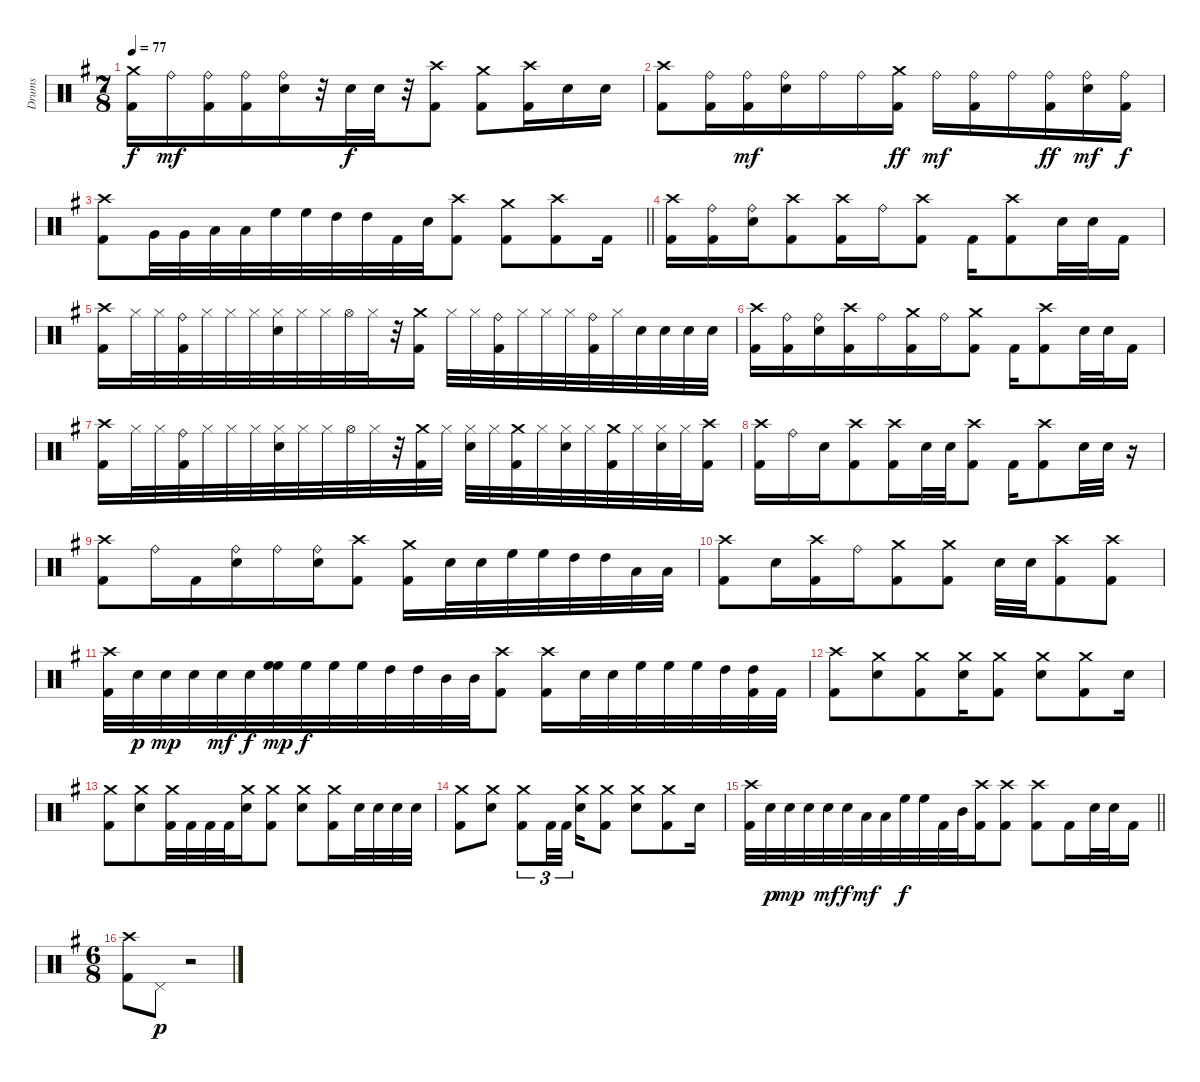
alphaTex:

\track ("Drums" "Drums") {instrument percussion}
\staff {score}
\articulation defaults
\ts (7 8)
\tempo 77
\clef neutral
\ks g
("Crash medium (hit)" "Kick (hit) 2").16{dy f} "Ride (bell)".16{dy mf} ("Kick (hit) 2" "Ride (bell)").16 ("Kick (hit) 2" "Ride (bell)").16 ("Ride (bell)" "Electric Snare (hit)").16 r.32 "Electric Snare (hit)".32{dy f} "Electric Snare (hit)".32 r.32 ("Kick (hit) 2" "Crash high (hit)").8 ("Kick (hit) 2" "Crash medium (hit)").8 ("Kick (hit) 2" "Crash high (hit)").16 "Electric Snare (hit)".16 "Electric Snare (hit)".16 |
("Kick (hit) 2" "Crash high (hit)").8 ("Kick (hit) 2" "Ride (bell)").16 ("Kick (hit) 2" "Ride (bell)").16{dy mf} ("Electric Snare (hit)" "Ride (bell)").16 "Ride (bell)".16 "Ride (bell)".16 ("Kick (hit) 2" "Crash medium (hit)").16{dy ff} "Ride (bell)".16{dy mf} ("Kick (hit) 2" "Ride (bell)").16 "Ride (bell)".16 ("Kick (hit) 2" "Ride (bell)").16{dy ff} ("Electric Snare (hit)" "Ride (bell)").16{dy mf} ("Kick (hit) 2" "Ride (bell)").16{dy f} |
\barLineRight lightlight
("Kick (hit) 2" "Crash high (hit)").8 "Very Low Tom (hit)".32 "Very Low Tom (hit)".32 "Low Floor Tom (hit)".32 "Low Floor Tom (hit)".32 "High Floor Tom (hit)".32 "High Floor Tom (hit)".32 "High Tom (hit)".32 "High Tom (hit)".32 "Kick (hit) 2".32 "Electric Snare (hit)".32 ("Kick (hit) 2" "Crash high (hit)").8 ("Kick (hit) 2" "Crash medium (hit)").8 ("Kick (hit) 2" "Crash high (hit)").8 "Kick (hit) 2".16 |
("Crash high (hit)" "Kick (hit) 2").16 ("Kick (hit) 2" "Ride (bell)").16 ("Electric Snare (hit)" "Ride (bell)").16 ("Kick (hit) 2" "Crash high (hit)").8 ("Crash high (hit)" "Kick (hit) 2").16 "Ride (bell)".16 ("Crash high (hit)" "Kick (hit) 2").8 "Kick (hit) 2".16 ("Kick (hit) 2" "Crash high (hit)").8 "Electric Snare (hit)".32 "Electric Snare (hit)".32 "Kick (hit) 2".16 |
("Kick (hit) 2" "Crash high (hit)").16 "Hi-Hat (closed)".32 "Hi-Hat (closed)".32 ("Kick (hit) 2" "Ride (bell)").32 "Hi-Hat (closed)".32 "Hi-Hat (closed)".32 "Hi-Hat (closed)".32 ("Hi-Hat (closed)" "Electric Snare (hit)").32 "Hi-Hat (closed)".32 "Hi-Hat (closed)".32 "Hi-Hat (open)".32 "Hi-Hat (closed)".32 r.32 ("Kick (hit) 2" "Crash medium (hit)").16 "Hi-Hat (closed)".32 "Hi-Hat (closed)".32 ("Kick (hit) 2" "Ride (bell)").32 "Hi-Hat (closed)".32 "Hi-Hat (closed)".32 "Hi-Hat (closed)".32 ("Ride (bell)" "Kick (hit) 2").32 "Hi-Hat (closed)".32 "Electric Snare (hit)".32 "Electric Snare (hit)".32 "Electric Snare (hit)".32 "Electric Snare (hit)".32 |
("Kick (hit) 2" "Crash high (hit)").16 ("Kick (hit) 2" "Ride (bell)").16 ("Electric Snare (hit)" "Ride (bell)").16 ("Kick (hit) 2" "Crash high (hit)").16 "Ride (bell)".16 ("Kick (hit) 2" "Crash medium (hit)").16 "Ride (bell)".16 ("Kick (hit) 2" "Crash medium (hit)").8 "Kick (hit) 2".16 ("Kick (hit) 2" "Crash high (hit)").8 "Electric Snare (hit)".32 "Electric Snare (hit)".32 "Kick (hit) 2".16 |
("Crash high (hit)" "Kick (hit) 2").16 "Hi-Hat (closed)".32 "Hi-Hat (closed)".32 ("Kick (hit) 2" "Ride (bell)").32 "Hi-Hat (closed)".32 "Hi-Hat (closed)".32 "Hi-Hat (closed)".32 ("Hi-Hat (closed)" "Electric Snare (hit)").32 "Hi-Hat (closed)".32 "Hi-Hat (closed)".32 "Hi-Hat (open)".32 "Hi-Hat (closed)".32 r.32 ("Kick (hit) 2" "Crash medium (hit)").32 "Hi-Hat (closed)".32 ("Hi-Hat (closed)" "Electric Snare (hit)").32 "Hi-Hat (closed)".32 ("Kick (hit) 2" "Crash medium (hit)").32 "Hi-Hat (closed)".32 ("Hi-Hat (closed)" "Electric Snare (hit)").32 "Hi-Hat (closed)".32 ("Kick (hit) 2" "Crash medium (hit)").32 "Hi-Hat (closed)".32 ("Electric Snare (hit)" "Hi-Hat (closed)").32 "Hi-Hat (closed)".32 ("Kick (hit) 2" "Crash high (hit)").16 |
("Kick (hit) 2" "Crash high (hit)").16 "Ride (bell)".16 "Electric Snare (hit)".16 ("Kick (hit) 2" "Crash high (hit)").8 ("Crash high (hit)" "Kick (hit) 2").16 "Electric Snare (hit)".32 "Electric Snare (hit)".32 ("Crash high (hit)" "Kick (hit) 2").8 "Kick (hit) 2".16 ("Kick (hit) 2" "Crash high (hit)").8 "Electric Snare (hit)".32 "Electric Snare (hit)".32 r.16 |
("Kick (hit) 2" "Crash high (hit)").8 "Ride (bell)".16 "Kick (hit) 2".16 ("Electric Snare (hit)" "Ride (bell)").16 "Ride (bell)".16 ("Electric Snare (hit)" "Ride (bell)").16 ("Kick (hit) 2" "Crash high (hit)").8 ("Kick (hit) 2" "Crash medium (hit)").16 "Electric Snare (hit)".32 "Electric Snare (hit)".32 "High Floor Tom (hit)".32 "High Floor Tom (hit)".32 "High Tom (hit)".32 "High Tom (hit)".32 "Low Tom (hit)".32 "Low Tom (hit)".32 |
("Crash high (hit)" "Kick (hit) 2").8 "Electric Snare (hit)".16 ("Kick (hit) 2" "Crash high (hit)").16 "Ride (bell)".16 ("Kick (hit) 2" "Crash medium (hit)").8 ("Kick (hit) 2" "Crash medium (hit)").8 "Electric Snare (hit)".32 "Electric Snare (hit)".32 ("Kick (hit) 2" "Crash high (hit)").8 ("Kick (hit) 2" "Crash high (hit)").8 |
("Kick (hit) 2" "Crash high (hit)").32 "Electric Snare (hit)".32{dy p} "Electric Snare (hit)".32{dy mp} "Electric Snare (hit)".32 "Electric Snare (hit)".32{dy mf} "Electric Snare (hit)".32{dy f} ("High Floor Tom (hit)" "High Floor Tom (hit)").32{dy mp} "High Floor Tom (hit)".32{dy f} "High Floor Tom (hit)".32 "High Floor Tom (hit)".32 "High Tom (hit)".32 "High Tom (hit)".32 "Mid Tom (hit)".32 "Mid Tom (hit)".32 ("Kick (hit) 2" "Crash high (hit)").8 ("Kick (hit) 2" "Crash high (hit)").16 "Electric Snare (hit)".32 "Electric Snare (hit)".32 "High Floor Tom (hit)".32 "High Floor Tom (hit)".32 "High Floor Tom (hit)".32 "High Tom (hit)".32 ("High Tom (hit)" "Kick (hit) 2").32 "Kick (hit) 2".32 |
("Kick (hit) 2" "Crash high (hit)").8 ("Electric Snare (hit)" "Crash medium (hit)").8 ("Kick (hit) 2" "Crash medium (hit)").8 ("Electric Snare (hit)" "Crash medium (hit)").16 ("Kick (hit) 2" "Crash medium (hit)").8 ("Electric Snare (hit)" "Crash medium (hit)").8 ("Kick (hit) 2" "Crash medium (hit)").8 "Electric Snare (hit)".16 |
("Kick (hit) 2" "Crash medium (hit)").8 ("Electric Snare (hit)" "Crash medium (hit)").8 ("Crash medium (hit)" "Kick (hit) 2").32 "Kick (hit) 2".32 "Kick (hit) 2".32 "Kick (hit) 2".32 ("Electric Snare (hit)" "Crash medium (hit)").16 ("Kick (hit) 2" "Crash medium (hit)").8 ("Electric Snare (hit)" "Crash medium (hit)").8 ("Kick (hit) 2" "Crash medium (hit)").16 "Electric Snare (hit)".32 "Electric Snare (hit)".32 "Electric Snare (hit)".32 "Electric Snare (hit)".32 |
("Kick (hit) 2" "Crash medium (hit)").8 ("Electric Snare (hit)" "Crash medium (hit)").8 ("Crash medium (hit)" "Kick (hit) 2").8{tu (3 2)} "Kick (hit) 2".32{tu (3 2)} "Kick (hit) 2".32{tu (3 2)} ("Electric Snare (hit)" "Crash medium (hit)").16 ("Kick (hit) 2" "Crash medium (hit)").8 ("Electric Snare (hit)" "Crash medium (hit)").8 ("Kick (hit) 2" "Crash medium (hit)").8 "Electric Snare (hit)".16 |
\barLineRight lightlight
("Crash high (hit)" "Kick (hit) 2").32 "Electric Snare (hit)".32{dy p} "Electric Snare (hit)".32{dy mp} "Electric Snare (hit)".32 "Electric Snare (hit)".32{dy mf} "Electric Snare (hit)".32{dy f} "Low Tom (hit)".32{dy mf} "Low Tom (hit)".32 "High Floor Tom (hit)".32{dy f} "High Floor Tom (hit)".32 "Kick (hit) 2".32 "Mid Tom (hit)".32 ("Crash high (hit)" "Kick (hit) 2").16 ("Crash high (hit)" "Kick (hit) 2").8 ("Crash high (hit)" "Kick (hit) 2").8 "Kick (hit) 2".16 "Electric Snare (hit)".32 "Electric Snare (hit)".32 "Kick (hit) 2".16 |
\ts (6 8)
("Kick (hit) 2" "Crash high (hit)").8 "Pedal Hi-Hat (hit)".8{dy p} r.2
